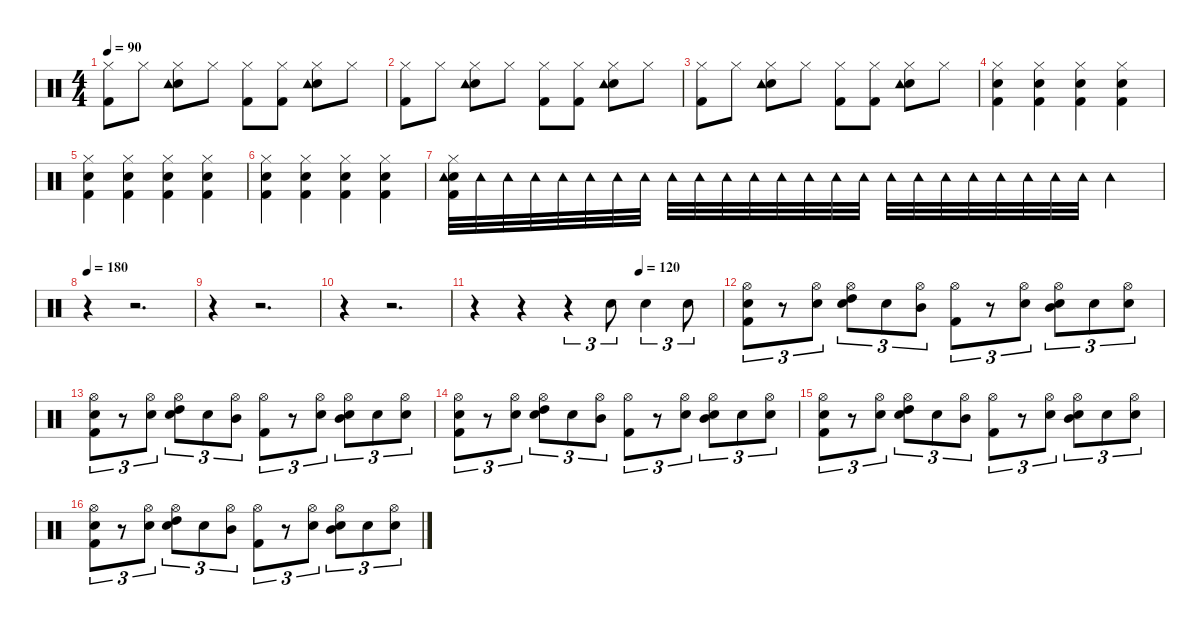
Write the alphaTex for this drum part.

\defaultSystemsLayout 4
\hideDynamics
\bracketExtendMode nobrackets
\singleTrackTrackNamePolicy hidden
\multiTrackTrackNamePolicy hidden
\firstSystemTrackNameMode fullname
\firstSystemTrackNameOrientation horizontal
\otherSystemsTrackNameOrientation horizontal
\track ("Drums" "drm.") {instrument percussion}
\staff {score}
\articulation defaults
\ts (4 4)
\tempo 90
\clef neutral
\ks c
("Hi-Hat (closed)" "Kick (hit) 2").8{dy f beam Down} "Hi-Hat (closed)".8{beam Down} ("Hi-Hat (closed)" "Snare (hit) 2" "Tambourine (hit)").8{beam Down} "Hi-Hat (closed)".8{beam Down} ("Hi-Hat (closed)" "Kick (hit) 2").8{beam Down} ("Hi-Hat (closed)" "Kick (hit) 2").8{beam Down} ("Hi-Hat (closed)" "Snare (hit) 2" "Tambourine (hit)").8{beam Down} "Hi-Hat (closed)".8{beam Down} |
("Hi-Hat (closed)" "Kick (hit) 2").8{beam Down} "Hi-Hat (closed)".8{beam Down} ("Hi-Hat (closed)" "Snare (hit) 2" "Tambourine (hit)").8{beam Down} "Hi-Hat (closed)".8{beam Down} ("Hi-Hat (closed)" "Kick (hit) 2").8{beam Down} ("Hi-Hat (closed)" "Kick (hit) 2").8{beam Down} ("Hi-Hat (closed)" "Snare (hit) 2" "Tambourine (hit)").8{beam Down} "Hi-Hat (closed)".8{beam Down} |
("Hi-Hat (closed)" "Kick (hit) 2").8{beam Down} "Hi-Hat (closed)".8{beam Down} ("Hi-Hat (closed)" "Snare (hit) 2" "Tambourine (hit)").8{beam Down} "Hi-Hat (closed)".8{beam Down} ("Hi-Hat (closed)" "Kick (hit) 2").8{beam Down} ("Hi-Hat (closed)" "Kick (hit) 2").8{beam Down} ("Hi-Hat (closed)" "Snare (hit) 2" "Tambourine (hit)").8{beam Down} "Hi-Hat (closed)".8{beam Down} |
("Hi-Hat (closed)" "Snare (hit) 2" "Kick (hit) 2").4{beam Down} ("Hi-Hat (closed)" "Snare (hit) 2" "Kick (hit) 2").4{beam Down} ("Hi-Hat (closed)" "Snare (hit) 2" "Kick (hit) 2").4{beam Down} ("Hi-Hat (closed)" "Snare (hit) 2" "Kick (hit) 2").4{beam Down} |
("Hi-Hat (closed)" "Snare (hit) 2" "Kick (hit) 2").4{beam Down} ("Hi-Hat (closed)" "Snare (hit) 2" "Kick (hit) 2").4{beam Down} ("Hi-Hat (closed)" "Snare (hit) 2" "Kick (hit) 2").4{beam Down} ("Hi-Hat (closed)" "Snare (hit) 2" "Kick (hit) 2").4{beam Down} |
("Hi-Hat (closed)" "Snare (hit) 2" "Kick (hit) 2").4{beam Down} ("Hi-Hat (closed)" "Snare (hit) 2" "Kick (hit) 2").4{beam Down} ("Hi-Hat (closed)" "Snare (hit) 2" "Kick (hit) 2").4{beam Down} ("Hi-Hat (closed)" "Snare (hit) 2" "Kick (hit) 2").4{beam Down} |
("Hi-Hat (closed)" "Snare (hit) 2" "Kick (hit) 2" "Tambourine (hit)").32{beam Down} "Tambourine (hit)".32{beam Down} "Tambourine (hit)".32{beam Down} "Tambourine (hit)".32{beam Down} "Tambourine (hit)".32{beam Down} "Tambourine (hit)".32{beam Down} "Tambourine (hit)".32{beam Down} "Tambourine (hit)".32{beam Down} "Tambourine (hit)".32{beam Down} "Tambourine (hit)".32{beam Down} "Tambourine (hit)".32{beam Down} "Tambourine (hit)".32{dy mf beam Down} "Tambourine (hit)".32{beam Down} "Tambourine (hit)".32{beam Down} "Tambourine (hit)".32{beam Down} "Tambourine (hit)".32{beam Down} "Tambourine (hit)".32{beam Down} "Tambourine (hit)".32{beam Down} "Tambourine (hit)".32{beam Down} "Tambourine (hit)".32{beam Down} "Tambourine (hit)".32{beam Down} "Tambourine (hit)".32{beam Down} "Tambourine (hit)".32{beam Down} "Tambourine (hit)".32{dy f beam Down} "Tambourine (hit)".4{beam Down} |
\tempo 180
r.4{beam Down} r.2{d beam Down} |
r.4{beam Down} r.2{d beam Down} |
r.4{beam Down} r.2{d beam Down} |
\tempo (120 0.666667)
r.4{beam Down} r.4{beam Down} r.4{tu (3 2) beam Down} "Snare (hit) 2".8{tu (3 2) beam Down} "Snare (hit) 2".4{tu (3 2) beam Down} "Snare (hit) 2".8{tu (3 2) beam Down} |
("Hi-Hat (open)" "Snare (hit) 2" "Kick (hit) 2").8{tu (3 2) beam Down} r.8{tu (3 2) beam Down} ("Hi-Hat (open)" "Snare (hit) 2").8{tu (3 2) beam Down} ("Hi-Hat (open)" "High Tom (hit)" "Snare (hit) 2").8{tu (3 2) beam Down} "Snare (hit) 2".8{tu (3 2) dy mp beam Down} ("Hi-Hat (open)" "Mid Tom (hit)").8{tu (3 2) dy f beam Down} ("Hi-Hat (open)" "Kick (hit) 2").8{tu (3 2) beam Down} r.8{tu (3 2) beam Down} ("Hi-Hat (open)" "Snare (hit) 2").8{tu (3 2) beam Down} ("Hi-Hat (open)" "Mid Tom (hit)" "Snare (hit) 2").8{tu (3 2) beam Down} "Snare (hit) 2".8{tu (3 2) dy mp beam Down} ("Hi-Hat (open)" "Snare (hit) 2").8{tu (3 2) dy f beam Down} |
("Hi-Hat (open)" "Snare (hit) 2" "Kick (hit) 2").8{tu (3 2) beam Down} r.8{tu (3 2) beam Down} ("Hi-Hat (open)" "Snare (hit) 2").8{tu (3 2) beam Down} ("Hi-Hat (open)" "High Tom (hit)" "Snare (hit) 2").8{tu (3 2) beam Down} "Snare (hit) 2".8{tu (3 2) dy mp beam Down} ("Hi-Hat (open)" "Mid Tom (hit)").8{tu (3 2) dy f beam Down} ("Hi-Hat (open)" "Kick (hit) 2").8{tu (3 2) beam Down} r.8{tu (3 2) beam Down} ("Hi-Hat (open)" "Snare (hit) 2").8{tu (3 2) beam Down} ("Hi-Hat (open)" "Mid Tom (hit)" "Snare (hit) 2").8{tu (3 2) beam Down} "Snare (hit) 2".8{tu (3 2) dy mp beam Down} ("Hi-Hat (open)" "Snare (hit) 2").8{tu (3 2) dy f beam Down} |
("Hi-Hat (open)" "Snare (hit) 2" "Kick (hit) 2").8{tu (3 2) beam Down} r.8{tu (3 2) beam Down} ("Hi-Hat (open)" "Snare (hit) 2").8{tu (3 2) beam Down} ("Hi-Hat (open)" "High Tom (hit)" "Snare (hit) 2").8{tu (3 2) beam Down} "Snare (hit) 2".8{tu (3 2) dy mp beam Down} ("Hi-Hat (open)" "Mid Tom (hit)").8{tu (3 2) dy f beam Down} ("Hi-Hat (open)" "Kick (hit) 2").8{tu (3 2) beam Down} r.8{tu (3 2) beam Down} ("Hi-Hat (open)" "Snare (hit) 2").8{tu (3 2) beam Down} ("Hi-Hat (open)" "Mid Tom (hit)" "Snare (hit) 2").8{tu (3 2) beam Down} "Snare (hit) 2".8{tu (3 2) dy mp beam Down} ("Hi-Hat (open)" "Snare (hit) 2").8{tu (3 2) dy f beam Down} |
("Hi-Hat (open)" "Snare (hit) 2" "Kick (hit) 2").8{tu (3 2) beam Down} r.8{tu (3 2) beam Down} ("Hi-Hat (open)" "Snare (hit) 2").8{tu (3 2) beam Down} ("Hi-Hat (open)" "High Tom (hit)" "Snare (hit) 2").8{tu (3 2) beam Down} "Snare (hit) 2".8{tu (3 2) dy mp beam Down} ("Hi-Hat (open)" "Mid Tom (hit)").8{tu (3 2) dy f beam Down} ("Hi-Hat (open)" "Kick (hit) 2").8{tu (3 2) beam Down} r.8{tu (3 2) beam Down} ("Hi-Hat (open)" "Snare (hit) 2").8{tu (3 2) beam Down} ("Hi-Hat (open)" "Mid Tom (hit)" "Snare (hit) 2").8{tu (3 2) beam Down} "Snare (hit) 2".8{tu (3 2) dy mp beam Down} ("Hi-Hat (open)" "Snare (hit) 2").8{tu (3 2) dy f beam Down} |
("Hi-Hat (open)" "Snare (hit) 2" "Kick (hit) 2").8{tu (3 2) beam Down} r.8{tu (3 2) beam Down} ("Hi-Hat (open)" "Snare (hit) 2").8{tu (3 2) beam Down} ("Hi-Hat (open)" "High Tom (hit)" "Snare (hit) 2").8{tu (3 2) beam Down} "Snare (hit) 2".8{tu (3 2) dy mp beam Down} ("Hi-Hat (open)" "Mid Tom (hit)").8{tu (3 2) dy f beam Down} ("Hi-Hat (open)" "Kick (hit) 2").8{tu (3 2) beam Down} r.8{tu (3 2) beam Down} ("Hi-Hat (open)" "Snare (hit) 2").8{tu (3 2) beam Down} ("Hi-Hat (open)" "Mid Tom (hit)" "Snare (hit) 2").8{tu (3 2) beam Down} "Snare (hit) 2".8{tu (3 2) dy mp beam Down} ("Hi-Hat (open)" "Snare (hit) 2").8{tu (3 2) dy f beam Down}
